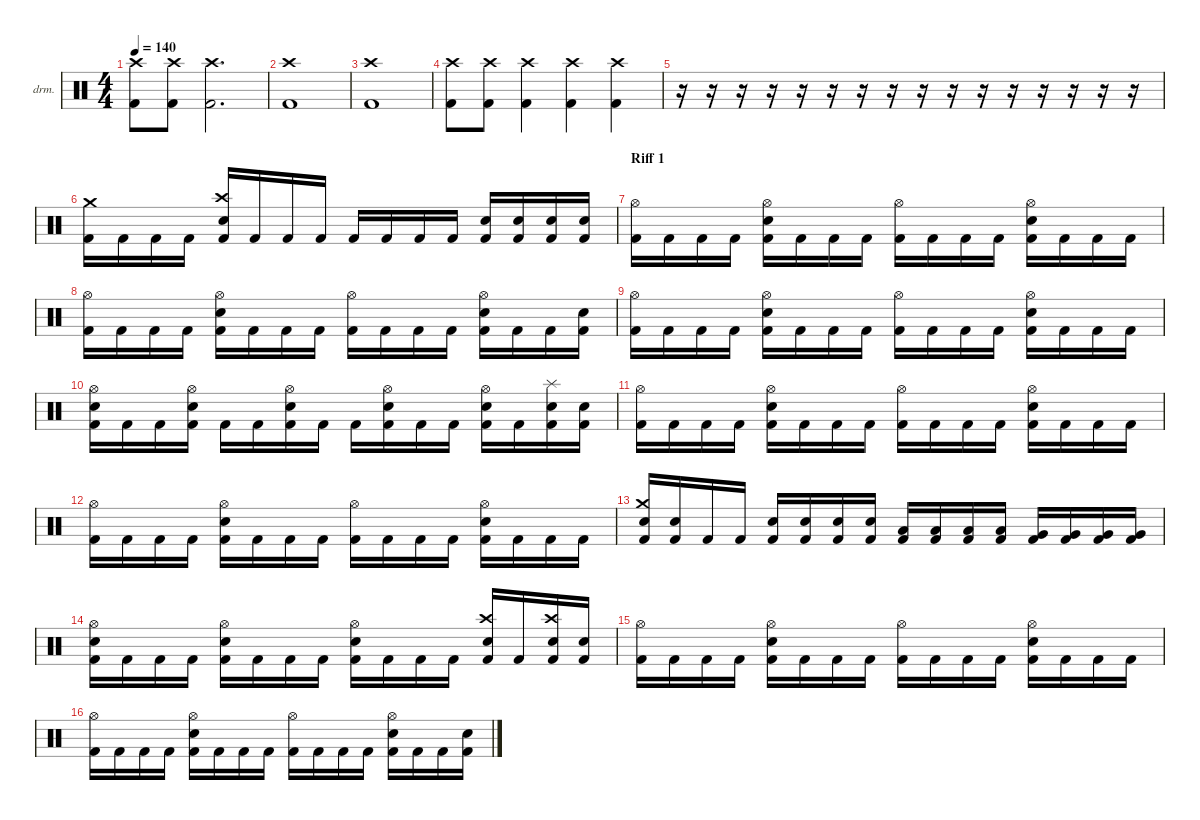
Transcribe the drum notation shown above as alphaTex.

\defaultSystemsLayout 4
\hideDynamics
\bracketExtendMode nobrackets
\firstSystemTrackNameOrientation horizontal
\otherSystemsTrackNameOrientation horizontal
\track ("Drumkit" "drm.") {instrument percussion}
\staff {score}
\articulation defaults
\ts (4 4)
\tempo 140
\clef neutral
\ks c
("Kick (hit) 2" "Crash high (hit)").8{dy f} ("Kick (hit) 2" "Crash high (hit)").8 ("Kick (hit) 2" "Crash high (hit)").2{d} |
("Kick (hit) 2" "Crash high (hit)").1 |
("Kick (hit) 2" "Crash high (hit)").1 |
("Crash high (hit)" "Kick (hit) 2").8 ("Crash high (hit)" "Kick (hit) 2").8 ("Crash high (hit)" "Kick (hit) 2").4 ("Crash high (hit)" "Kick (hit) 2").4 ("Crash high (hit)" "Kick (hit) 2").4 |
r.16 r.16 r.16 r.16 r.16 r.16 r.16 r.16 r.16 r.16 r.16 r.16 r.16 r.16 r.16 r.16 |
("Crash medium (hit)" "Kick (hit) 2").16 "Kick (hit) 2".16 "Kick (hit) 2".16 "Kick (hit) 2".16 ("Crash high (hit)" "Snare (hit) 2" "Kick (hit) 2").16 "Kick (hit) 2".16 "Kick (hit) 2".16 "Kick (hit) 2".16 "Kick (hit) 2".16 "Kick (hit) 2".16 "Kick (hit) 2".16 "Kick (hit) 2".16 ("Snare (hit) 2" "Kick (hit) 2").16 ("Snare (hit) 2" "Kick (hit) 2").16 ("Snare (hit) 2" "Kick (hit) 2").16 ("Snare (hit) 2" "Kick (hit) 2").16 |
\section ("" "Riff 1")
("Hi-Hat (open)" "Kick (hit) 2").16{dy ff} "Kick (hit) 2".16 "Kick (hit) 2".16 "Kick (hit) 2".16 ("Hi-Hat (open)" "Snare (hit) 2" "Kick (hit) 2").16 "Kick (hit) 2".16 "Kick (hit) 2".16 "Kick (hit) 2".16 ("Hi-Hat (open)" "Kick (hit) 2").16 "Kick (hit) 2".16 "Kick (hit) 2".16 "Kick (hit) 2".16 ("Hi-Hat (open)" "Snare (hit) 2" "Kick (hit) 2").16 "Kick (hit) 2".16 "Kick (hit) 2".16 "Kick (hit) 2".16 |
("Hi-Hat (open)" "Kick (hit) 2").16 "Kick (hit) 2".16 "Kick (hit) 2".16 "Kick (hit) 2".16 ("Hi-Hat (open)" "Snare (hit) 2" "Kick (hit) 2").16 "Kick (hit) 2".16 "Kick (hit) 2".16 "Kick (hit) 2".16 ("Hi-Hat (open)" "Kick (hit) 2").16 "Kick (hit) 2".16 "Kick (hit) 2".16 "Kick (hit) 2".16 ("Hi-Hat (open)" "Snare (hit) 2" "Kick (hit) 2").16 "Kick (hit) 2".16 "Kick (hit) 2".16 ("Snare (hit) 2" "Kick (hit) 2").16 |
("Hi-Hat (open)" "Kick (hit) 2").16 "Kick (hit) 2".16 "Kick (hit) 2".16 "Kick (hit) 2".16 ("Hi-Hat (open)" "Snare (hit) 2" "Kick (hit) 2").16 "Kick (hit) 2".16 "Kick (hit) 2".16 "Kick (hit) 2".16 ("Hi-Hat (open)" "Kick (hit) 2").16 "Kick (hit) 2".16 "Kick (hit) 2".16 "Kick (hit) 2".16 ("Hi-Hat (open)" "Snare (hit) 2" "Kick (hit) 2").16 "Kick (hit) 2".16 "Kick (hit) 2".16 "Kick (hit) 2".16 |
("Hi-Hat (open)" "Snare (hit) 2" "Kick (hit) 2").16 "Kick (hit) 2".16 "Kick (hit) 2".16 ("Hi-Hat (open)" "Snare (hit) 2" "Kick (hit) 2").16 "Kick (hit) 2".16 "Kick (hit) 2".16 ("Hi-Hat (open)" "Snare (hit) 2" "Kick (hit) 2").16 "Kick (hit) 2".16 "Kick (hit) 2".16 ("Hi-Hat (open)" "Snare (hit) 2" "Kick (hit) 2").16 "Kick (hit) 2".16 "Kick (hit) 2".16 ("Hi-Hat (open)" "Snare (hit) 2" "Kick (hit) 2").16 "Kick (hit) 2".16 ("Splash (hit)" "Snare (hit) 2" "Kick (hit) 2").16 ("Snare (hit) 2" "Kick (hit) 2").16 |
("Hi-Hat (open)" "Kick (hit) 2").16 "Kick (hit) 2".16 "Kick (hit) 2".16 "Kick (hit) 2".16 ("Hi-Hat (open)" "Snare (hit) 2" "Kick (hit) 2").16 "Kick (hit) 2".16 "Kick (hit) 2".16 "Kick (hit) 2".16 ("Hi-Hat (open)" "Kick (hit) 2").16 "Kick (hit) 2".16 "Kick (hit) 2".16 "Kick (hit) 2".16 ("Hi-Hat (open)" "Snare (hit) 2" "Kick (hit) 2").16 "Kick (hit) 2".16 "Kick (hit) 2".16 "Kick (hit) 2".16 |
("Hi-Hat (open)" "Kick (hit) 2").16 "Kick (hit) 2".16 "Kick (hit) 2".16 "Kick (hit) 2".16 ("Hi-Hat (open)" "Snare (hit) 2" "Kick (hit) 2").16 "Kick (hit) 2".16 "Kick (hit) 2".16 "Kick (hit) 2".16 ("Hi-Hat (open)" "Kick (hit) 2").16 "Kick (hit) 2".16 "Kick (hit) 2".16 "Kick (hit) 2".16 ("Hi-Hat (open)" "Snare (hit) 2" "Kick (hit) 2").16 "Kick (hit) 2".16 "Kick (hit) 2".16 "Kick (hit) 2".16 |
("Crash medium (hit)" "Snare (hit) 2" "Kick (hit) 2").16{dy mf} ("Snare (hit) 2" "Kick (hit) 2").16 "Kick (hit) 2".16 "Kick (hit) 2".16 ("Snare (hit) 2" "Kick (hit) 2").16 ("Snare (hit) 2" "Kick (hit) 2").16 ("Snare (hit) 2" "Kick (hit) 2").16 ("Snare (hit) 2" "Kick (hit) 2").16 ("Low Tom (hit)" "Kick (hit) 2").16 ("Low Tom (hit)" "Kick (hit) 2").16 ("Low Tom (hit)" "Kick (hit) 2").16 ("Low Tom (hit)" "Kick (hit) 2").16 ("Very Low Tom (hit)" "Kick (hit) 2").16 ("Very Low Tom (hit)" "Kick (hit) 2").16 ("Very Low Tom (hit)" "Kick (hit) 2").16 ("Very Low Tom (hit)" "Kick (hit) 2").16 |
("Hi-Hat (open)" "Snare (hit) 2" "Kick (hit) 2").16 "Kick (hit) 2".16 "Kick (hit) 2".16 "Kick (hit) 2".16 ("Hi-Hat (open)" "Snare (hit) 2" "Kick (hit) 2").16 "Kick (hit) 2".16 "Kick (hit) 2".16 "Kick (hit) 2".16 ("Hi-Hat (open)" "Snare (hit) 2" "Kick (hit) 2").16 "Kick (hit) 2".16 "Kick (hit) 2".16 "Kick (hit) 2".16 ("Crash high (hit)" "Snare (hit) 2" "Kick (hit) 2").16 "Kick (hit) 2".16 ("Crash high (hit)" "Snare (hit) 2" "Kick (hit) 2").16 ("Snare (hit) 2" "Kick (hit) 2").16 |
("Hi-Hat (open)" "Kick (hit) 2").16{dy ff} "Kick (hit) 2".16 "Kick (hit) 2".16 "Kick (hit) 2".16 ("Hi-Hat (open)" "Snare (hit) 2" "Kick (hit) 2").16 "Kick (hit) 2".16 "Kick (hit) 2".16 "Kick (hit) 2".16 ("Hi-Hat (open)" "Kick (hit) 2").16 "Kick (hit) 2".16 "Kick (hit) 2".16 "Kick (hit) 2".16 ("Hi-Hat (open)" "Snare (hit) 2" "Kick (hit) 2").16 "Kick (hit) 2".16 "Kick (hit) 2".16 "Kick (hit) 2".16 |
("Hi-Hat (open)" "Kick (hit) 2").16 "Kick (hit) 2".16 "Kick (hit) 2".16 "Kick (hit) 2".16 ("Hi-Hat (open)" "Snare (hit) 2" "Kick (hit) 2").16 "Kick (hit) 2".16 "Kick (hit) 2".16 "Kick (hit) 2".16 ("Hi-Hat (open)" "Kick (hit) 2").16 "Kick (hit) 2".16 "Kick (hit) 2".16 "Kick (hit) 2".16 ("Hi-Hat (open)" "Snare (hit) 2" "Kick (hit) 2").16 "Kick (hit) 2".16 "Kick (hit) 2".16 ("Snare (hit) 2" "Kick (hit) 2").16
